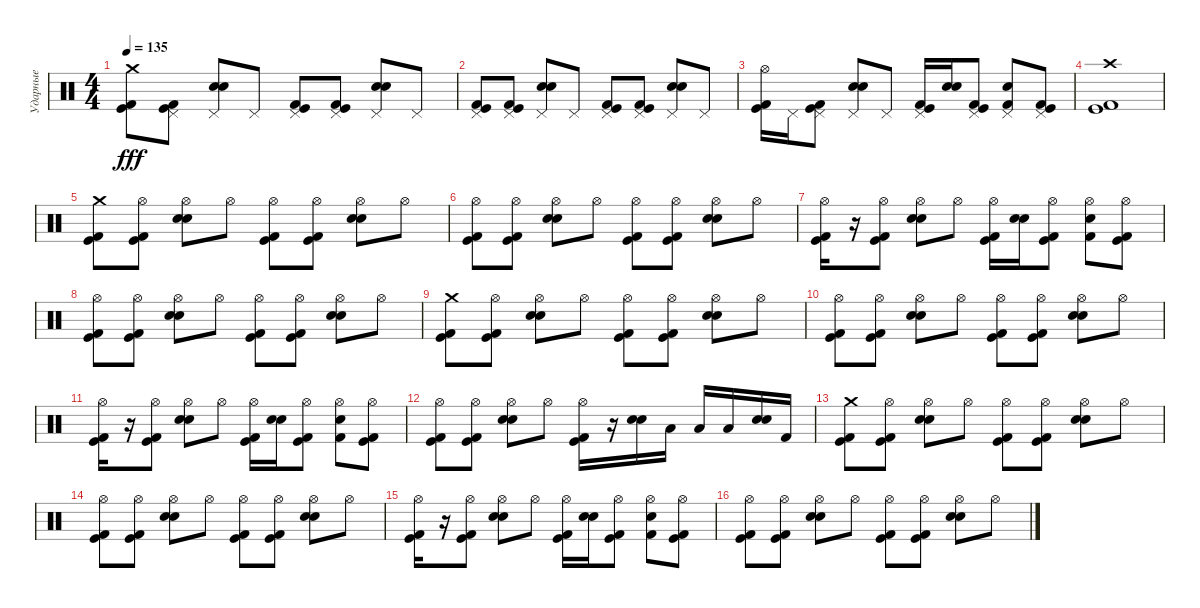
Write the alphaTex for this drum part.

\track ("Ударные" "Ударные") {instrument percussion}
\staff {score}
\articulation defaults
\ts (4 4)
\tempo 135
\clef neutral
\ks c
("Crash medium (hit)" "Kick (hit)" "Kick (hit) 2").8{dy fff} ("Pedal Hi-Hat (hit)" "Kick (hit)" "Kick (hit) 2").8 ("Pedal Hi-Hat (hit)" "Snare (hit) 2" "Electric Snare (hit)").8 "Pedal Hi-Hat (hit)".8 ("Pedal Hi-Hat (hit)" "Kick (hit)" "Kick (hit) 2").8 ("Pedal Hi-Hat (hit)" "Kick (hit)" "Kick (hit) 2").8 ("Pedal Hi-Hat (hit)" "Snare (hit) 2" "Electric Snare (hit)").8 "Pedal Hi-Hat (hit)".8 |
("Pedal Hi-Hat (hit)" "Kick (hit)" "Kick (hit) 2").8 ("Pedal Hi-Hat (hit)" "Kick (hit)" "Kick (hit) 2").8 ("Pedal Hi-Hat (hit)" "Snare (hit) 2" "Electric Snare (hit)").8 "Pedal Hi-Hat (hit)".8 ("Pedal Hi-Hat (hit)" "Kick (hit)" "Kick (hit) 2").8 ("Pedal Hi-Hat (hit)" "Kick (hit)" "Kick (hit) 2").8 ("Pedal Hi-Hat (hit)" "Snare (hit) 2" "Electric Snare (hit)").8 "Pedal Hi-Hat (hit)".8 |
("Hi-Hat (open)" "Kick (hit)" "Kick (hit) 2").16 "Pedal Hi-Hat (hit)".16 ("Pedal Hi-Hat (hit)" "Kick (hit)" "Kick (hit) 2").8 ("Pedal Hi-Hat (hit)" "Snare (hit) 2" "Electric Snare (hit)").8 "Pedal Hi-Hat (hit)".8 ("Pedal Hi-Hat (hit)" "Kick (hit)" "Kick (hit) 2").16 ("Snare (hit) 2" "Electric Snare (hit)").16 ("Pedal Hi-Hat (hit)" "Kick (hit)" "Kick (hit) 2").8 ("Pedal Hi-Hat (hit)" "Kick (hit) 2" "Electric Snare (hit)").8 ("Pedal Hi-Hat (hit)" "Kick (hit)" "Kick (hit) 2").8 |
("Crash high (hit)" "Kick (hit)" "Kick (hit) 2").1 |
("Crash medium (hit)" "Kick (hit)" "Kick (hit) 2").8 ("Hi-Hat (open)" "Kick (hit)" "Kick (hit) 2").8 ("Hi-Hat (open)" "Snare (hit) 2" "Electric Snare (hit)").8 "Hi-Hat (open)".8 ("Hi-Hat (open)" "Kick (hit)" "Kick (hit) 2").8 ("Hi-Hat (open)" "Kick (hit)" "Kick (hit) 2").8 ("Hi-Hat (open)" "Snare (hit) 2" "Electric Snare (hit)").8 "Hi-Hat (open)".8 |
("Hi-Hat (open)" "Kick (hit)" "Kick (hit) 2").8 ("Hi-Hat (open)" "Kick (hit)" "Kick (hit) 2").8 ("Hi-Hat (open)" "Snare (hit) 2" "Electric Snare (hit)").8 "Hi-Hat (open)".8 ("Hi-Hat (open)" "Kick (hit)" "Kick (hit) 2").8 ("Hi-Hat (open)" "Kick (hit)" "Kick (hit) 2").8 ("Hi-Hat (open)" "Snare (hit) 2" "Electric Snare (hit)").8 "Hi-Hat (open)".8 |
("Hi-Hat (open)" "Kick (hit)" "Kick (hit) 2").16 r.16 ("Hi-Hat (open)" "Kick (hit)" "Kick (hit) 2").8 ("Hi-Hat (open)" "Snare (hit) 2" "Electric Snare (hit)").8 "Hi-Hat (open)".8 ("Hi-Hat (open)" "Kick (hit)" "Kick (hit) 2").16 ("Snare (hit) 2" "Electric Snare (hit)").16 ("Hi-Hat (open)" "Kick (hit)" "Kick (hit) 2").8 ("Hi-Hat (open)" "Kick (hit) 2" "Electric Snare (hit)").8 ("Hi-Hat (open)" "Kick (hit)" "Kick (hit) 2").8 |
("Hi-Hat (open)" "Kick (hit)" "Kick (hit) 2").8 ("Hi-Hat (open)" "Kick (hit)" "Kick (hit) 2").8 ("Hi-Hat (open)" "Snare (hit) 2" "Electric Snare (hit)").8 "Hi-Hat (open)".8 ("Hi-Hat (open)" "Kick (hit)" "Kick (hit) 2").8 ("Hi-Hat (open)" "Kick (hit)" "Kick (hit) 2").8 ("Hi-Hat (open)" "Snare (hit) 2" "Electric Snare (hit)").8 "Hi-Hat (open)".8 |
("Crash medium (hit)" "Kick (hit)" "Kick (hit) 2").8 ("Hi-Hat (open)" "Kick (hit)" "Kick (hit) 2").8 ("Hi-Hat (open)" "Snare (hit) 2" "Electric Snare (hit)").8 "Hi-Hat (open)".8 ("Hi-Hat (open)" "Kick (hit)" "Kick (hit) 2").8 ("Hi-Hat (open)" "Kick (hit)" "Kick (hit) 2").8 ("Hi-Hat (open)" "Snare (hit) 2" "Electric Snare (hit)").8 "Hi-Hat (open)".8 |
("Hi-Hat (open)" "Kick (hit)" "Kick (hit) 2").8 ("Hi-Hat (open)" "Kick (hit)" "Kick (hit) 2").8 ("Hi-Hat (open)" "Snare (hit) 2" "Electric Snare (hit)").8 "Hi-Hat (open)".8 ("Hi-Hat (open)" "Kick (hit)" "Kick (hit) 2").8 ("Hi-Hat (open)" "Kick (hit)" "Kick (hit) 2").8 ("Hi-Hat (open)" "Snare (hit) 2" "Electric Snare (hit)").8 "Hi-Hat (open)".8 |
("Hi-Hat (open)" "Kick (hit)" "Kick (hit) 2").16 r.16 ("Hi-Hat (open)" "Kick (hit)" "Kick (hit) 2").8 ("Hi-Hat (open)" "Snare (hit) 2" "Electric Snare (hit)").8 "Hi-Hat (open)".8 ("Hi-Hat (open)" "Kick (hit)" "Kick (hit) 2").16 ("Snare (hit) 2" "Electric Snare (hit)").16 ("Hi-Hat (open)" "Kick (hit)" "Kick (hit) 2").8 ("Hi-Hat (open)" "Kick (hit) 2" "Electric Snare (hit)").8 ("Hi-Hat (open)" "Kick (hit)" "Kick (hit) 2").8 |
("Hi-Hat (open)" "Kick (hit)" "Kick (hit) 2").8 ("Hi-Hat (open)" "Kick (hit)" "Kick (hit) 2").8 ("Hi-Hat (open)" "Snare (hit) 2" "Electric Snare (hit)").8 "Hi-Hat (open)".8 ("Hi-Hat (open)" "Kick (hit)" "Kick (hit) 2").16 r.16 ("Electric Snare (hit)" "Snare (hit) 2").16 "Low Floor Tom (hit)".16 "Low Floor Tom (hit)".16 "Low Floor Tom (hit)".16 ("Snare (hit) 2" "Electric Snare (hit)").16 "Kick (hit) 2".16 |
("Crash medium (hit)" "Kick (hit)" "Kick (hit) 2").8 ("Hi-Hat (open)" "Kick (hit)" "Kick (hit) 2").8 ("Hi-Hat (open)" "Snare (hit) 2" "Electric Snare (hit)").8 "Hi-Hat (open)".8 ("Hi-Hat (open)" "Kick (hit)" "Kick (hit) 2").8 ("Hi-Hat (open)" "Kick (hit)" "Kick (hit) 2").8 ("Hi-Hat (open)" "Snare (hit) 2" "Electric Snare (hit)").8 "Hi-Hat (open)".8 |
("Hi-Hat (open)" "Kick (hit)" "Kick (hit) 2").8 ("Hi-Hat (open)" "Kick (hit)" "Kick (hit) 2").8 ("Hi-Hat (open)" "Snare (hit) 2" "Electric Snare (hit)").8 "Hi-Hat (open)".8 ("Hi-Hat (open)" "Kick (hit)" "Kick (hit) 2").8 ("Hi-Hat (open)" "Kick (hit)" "Kick (hit) 2").8 ("Hi-Hat (open)" "Snare (hit) 2" "Electric Snare (hit)").8 "Hi-Hat (open)".8 |
("Hi-Hat (open)" "Kick (hit)" "Kick (hit) 2").16 r.16 ("Hi-Hat (open)" "Kick (hit)" "Kick (hit) 2").8 ("Hi-Hat (open)" "Snare (hit) 2" "Electric Snare (hit)").8 "Hi-Hat (open)".8 ("Hi-Hat (open)" "Kick (hit)" "Kick (hit) 2").16 ("Snare (hit) 2" "Electric Snare (hit)").16 ("Hi-Hat (open)" "Kick (hit)" "Kick (hit) 2").8 ("Hi-Hat (open)" "Kick (hit) 2" "Electric Snare (hit)").8 ("Hi-Hat (open)" "Kick (hit)" "Kick (hit) 2").8 |
("Hi-Hat (open)" "Kick (hit)" "Kick (hit) 2").8 ("Hi-Hat (open)" "Kick (hit)" "Kick (hit) 2").8 ("Hi-Hat (open)" "Snare (hit) 2" "Electric Snare (hit)").8 "Hi-Hat (open)".8 ("Hi-Hat (open)" "Kick (hit)" "Kick (hit) 2").8 ("Hi-Hat (open)" "Kick (hit)" "Kick (hit) 2").8 ("Hi-Hat (open)" "Snare (hit) 2" "Electric Snare (hit)").8 "Hi-Hat (open)".8
